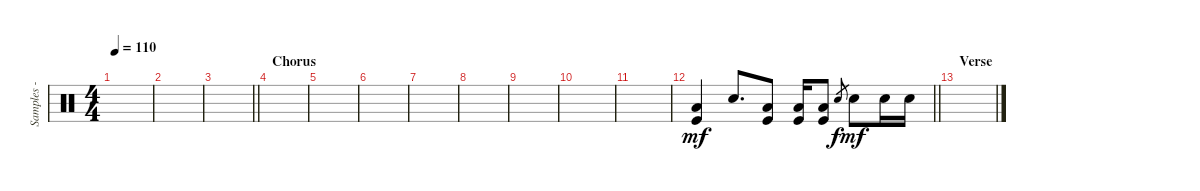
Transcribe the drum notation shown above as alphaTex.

\track ("Samples - Joe Hahn" "Samples - ") {instrument percussion}
\staff {score}
\articulation defaults
\ts (4 4)
\tempo 110
\clef neutral
\ks c
|
|
\barLineRight lightlight
|
\section ("" "Chorus")
|
|
|
|
|
|
|
|
\barLineRight lightlight
("Low Tom (hit)" "Kick (hit)").4{dy mf} "Snare (hit) 2".8{d} ("Low Tom (hit)" "Kick (hit)").8 ("Low Tom (hit)" "Kick (hit)").16 ("Low Tom (hit)" "Kick (hit)").8 "Snare (hit) 2".8{gr dy f} "Snare (hit) 2".8{dy mf} "Snare (hit) 2".16 "Snare (hit) 2".16 |
\section ("" "Verse")
